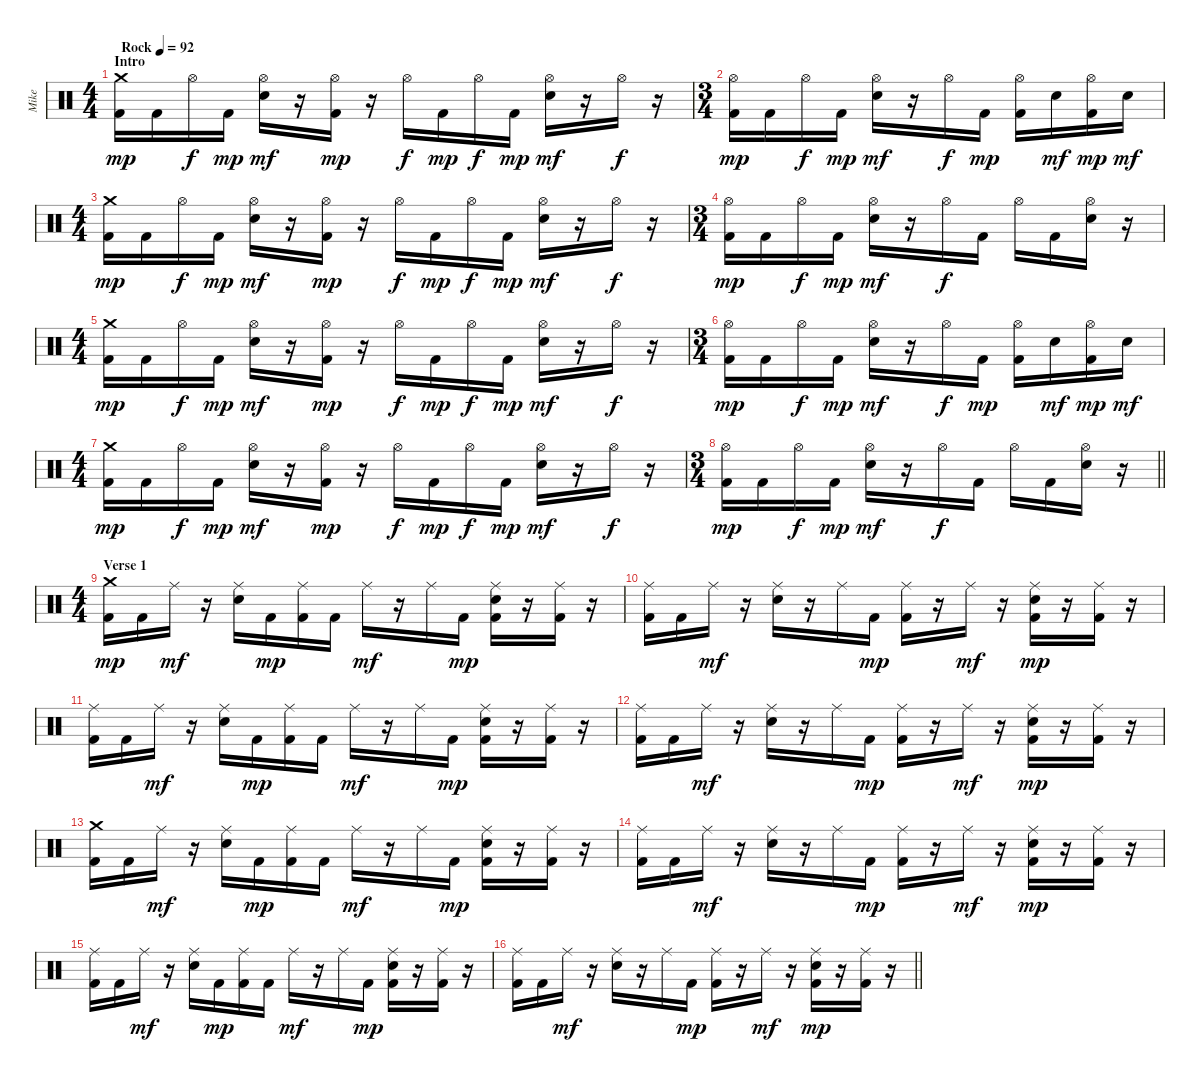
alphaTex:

\track ("Mike" "Mike") {instrument percussion}
\staff {score}
\articulation defaults
\ts (4 4)
\section ("" "Intro")
\tempo (92 "Rock")
\clef neutral
\ks c
("Crash medium (hit)" "Kick (hit) 2").16{dy mp} "Kick (hit) 2".16 "Hi-Hat (open)".16{dy f} "Kick (hit) 2".16{dy mp} ("Hi-Hat (open)" "Snare (hit) 2").16{dy mf} r.16 ("Hi-Hat (open)" "Kick (hit) 2").16{dy mp} r.16 "Hi-Hat (open)".16{dy f} "Kick (hit) 2".16{dy mp} "Hi-Hat (open)".16{dy f} "Kick (hit) 2".16{dy mp} ("Hi-Hat (open)" "Snare (hit) 2").16{dy mf} r.16 "Hi-Hat (open)".16{dy f} r.16 |
\ts (3 4)
("Hi-Hat (open)" "Kick (hit) 2").16{dy mp} "Kick (hit) 2".16 "Hi-Hat (open)".16{dy f} "Kick (hit) 2".16{dy mp} ("Hi-Hat (open)" "Snare (hit) 2").16{dy mf} r.16 "Hi-Hat (open)".16{dy f} "Kick (hit) 2".16{dy mp} ("Hi-Hat (open)" "Kick (hit) 2").16 "Snare (hit) 2".16{dy mf} ("Hi-Hat (open)" "Kick (hit) 2").16{dy mp} "Snare (hit) 2".16{dy mf} |
\ts (4 4)
("Crash medium (hit)" "Kick (hit) 2").16{dy mp} "Kick (hit) 2".16 "Hi-Hat (open)".16{dy f} "Kick (hit) 2".16{dy mp} ("Hi-Hat (open)" "Snare (hit) 2").16{dy mf} r.16 ("Hi-Hat (open)" "Kick (hit) 2").16{dy mp} r.16 "Hi-Hat (open)".16{dy f} "Kick (hit) 2".16{dy mp} "Hi-Hat (open)".16{dy f} "Kick (hit) 2".16{dy mp} ("Hi-Hat (open)" "Snare (hit) 2").16{dy mf} r.16 "Hi-Hat (open)".16{dy f} r.16 |
\ts (3 4)
("Hi-Hat (open)" "Kick (hit) 2").16{dy mp} "Kick (hit) 2".16 "Hi-Hat (open)".16{dy f} "Kick (hit) 2".16{dy mp} ("Hi-Hat (open)" "Snare (hit) 2").16{dy mf} r.16 "Hi-Hat (open)".16{dy f} "Kick (hit) 2".16 "Hi-Hat (open)".16 "Kick (hit) 2".16 ("Hi-Hat (open)" "Snare (hit) 2").16 r.16 |
\ts (4 4)
("Crash medium (hit)" "Kick (hit) 2").16{dy mp} "Kick (hit) 2".16 "Hi-Hat (open)".16{dy f} "Kick (hit) 2".16{dy mp} ("Hi-Hat (open)" "Snare (hit) 2").16{dy mf} r.16 ("Hi-Hat (open)" "Kick (hit) 2").16{dy mp} r.16 "Hi-Hat (open)".16{dy f} "Kick (hit) 2".16{dy mp} "Hi-Hat (open)".16{dy f} "Kick (hit) 2".16{dy mp} ("Hi-Hat (open)" "Snare (hit) 2").16{dy mf} r.16 "Hi-Hat (open)".16{dy f} r.16 |
\ts (3 4)
("Hi-Hat (open)" "Kick (hit) 2").16{dy mp} "Kick (hit) 2".16 "Hi-Hat (open)".16{dy f} "Kick (hit) 2".16{dy mp} ("Hi-Hat (open)" "Snare (hit) 2").16{dy mf} r.16 "Hi-Hat (open)".16{dy f} "Kick (hit) 2".16{dy mp} ("Hi-Hat (open)" "Kick (hit) 2").16 "Snare (hit) 2".16{dy mf} ("Hi-Hat (open)" "Kick (hit) 2").16{dy mp} "Snare (hit) 2".16{dy mf} |
\ts (4 4)
("Crash medium (hit)" "Kick (hit) 2").16{dy mp} "Kick (hit) 2".16 "Hi-Hat (open)".16{dy f} "Kick (hit) 2".16{dy mp} ("Hi-Hat (open)" "Snare (hit) 2").16{dy mf} r.16 ("Hi-Hat (open)" "Kick (hit) 2").16{dy mp} r.16 "Hi-Hat (open)".16{dy f} "Kick (hit) 2".16{dy mp} "Hi-Hat (open)".16{dy f} "Kick (hit) 2".16{dy mp} ("Hi-Hat (open)" "Snare (hit) 2").16{dy mf} r.16 "Hi-Hat (open)".16{dy f} r.16 |
\ts (3 4)
\barLineRight lightlight
("Hi-Hat (open)" "Kick (hit) 2").16{dy mp} "Kick (hit) 2".16 "Hi-Hat (open)".16{dy f} "Kick (hit) 2".16{dy mp} ("Hi-Hat (open)" "Snare (hit) 2").16{dy mf} r.16 "Hi-Hat (open)".16{dy f} "Kick (hit) 2".16 "Hi-Hat (open)".16 "Kick (hit) 2".16 ("Hi-Hat (open)" "Snare (hit) 2").16 r.16 |
\ts (4 4)
\section ("" "Verse 1")
("Crash medium (hit)" "Kick (hit) 2").16{dy mp} "Kick (hit) 2".16 "Ride (middle)".16{dy mf} r.16 ("Ride (middle)" "Snare (hit) 2").16 "Kick (hit) 2".16{dy mp} ("Ride (middle)" "Kick (hit) 2").16 "Kick (hit) 2".16 "Ride (middle)".16{dy mf} r.16 "Ride (middle)".16 "Kick (hit) 2".16{dy mp} ("Ride (middle)" "Snare (hit) 2" "Kick (hit) 2").16 r.16 ("Ride (middle)" "Kick (hit) 2").16 r.16 |
("Ride (middle)" "Kick (hit) 2").16 "Kick (hit) 2".16 "Ride (middle)".16{dy mf} r.16 ("Ride (middle)" "Snare (hit) 2").16 r.16 "Ride (middle)".16 "Kick (hit) 2".16{dy mp} ("Ride (middle)" "Kick (hit) 2").16 r.16 "Ride (middle)".16{dy mf} r.16 ("Ride (middle)" "Snare (hit) 2" "Kick (hit) 2").16{dy mp} r.16 ("Ride (middle)" "Kick (hit) 2").16 r.16 |
("Ride (middle)" "Kick (hit) 2").16 "Kick (hit) 2".16 "Ride (middle)".16{dy mf} r.16 ("Ride (middle)" "Snare (hit) 2").16 "Kick (hit) 2".16{dy mp} ("Ride (middle)" "Kick (hit) 2").16 "Kick (hit) 2".16 "Ride (middle)".16{dy mf} r.16 "Ride (middle)".16 "Kick (hit) 2".16{dy mp} ("Ride (middle)" "Snare (hit) 2" "Kick (hit) 2").16 r.16 ("Ride (middle)" "Kick (hit) 2").16 r.16 |
("Ride (middle)" "Kick (hit) 2").16 "Kick (hit) 2".16 "Ride (middle)".16{dy mf} r.16 ("Ride (middle)" "Snare (hit) 2").16 r.16 "Ride (middle)".16 "Kick (hit) 2".16{dy mp} ("Ride (middle)" "Kick (hit) 2").16 r.16 "Ride (middle)".16{dy mf} r.16 ("Ride (middle)" "Snare (hit) 2" "Kick (hit) 2").16{dy mp} r.16 ("Ride (middle)" "Kick (hit) 2").16 r.16 |
("Crash medium (hit)" "Kick (hit) 2").16 "Kick (hit) 2".16 "Ride (middle)".16{dy mf} r.16 ("Ride (middle)" "Snare (hit) 2").16 "Kick (hit) 2".16{dy mp} ("Ride (middle)" "Kick (hit) 2").16 "Kick (hit) 2".16 "Ride (middle)".16{dy mf} r.16 "Ride (middle)".16 "Kick (hit) 2".16{dy mp} ("Ride (middle)" "Snare (hit) 2" "Kick (hit) 2").16 r.16 ("Ride (middle)" "Kick (hit) 2").16 r.16 |
("Ride (middle)" "Kick (hit) 2").16 "Kick (hit) 2".16 "Ride (middle)".16{dy mf} r.16 ("Ride (middle)" "Snare (hit) 2").16 r.16 "Ride (middle)".16 "Kick (hit) 2".16{dy mp} ("Ride (middle)" "Kick (hit) 2").16 r.16 "Ride (middle)".16{dy mf} r.16 ("Ride (middle)" "Snare (hit) 2" "Kick (hit) 2").16{dy mp} r.16 ("Ride (middle)" "Kick (hit) 2").16 r.16 |
("Ride (middle)" "Kick (hit) 2").16 "Kick (hit) 2".16 "Ride (middle)".16{dy mf} r.16 ("Ride (middle)" "Snare (hit) 2").16 "Kick (hit) 2".16{dy mp} ("Ride (middle)" "Kick (hit) 2").16 "Kick (hit) 2".16 "Ride (middle)".16{dy mf} r.16 "Ride (middle)".16 "Kick (hit) 2".16{dy mp} ("Ride (middle)" "Snare (hit) 2" "Kick (hit) 2").16 r.16 ("Ride (middle)" "Kick (hit) 2").16 r.16 |
\barLineRight lightlight
("Ride (middle)" "Kick (hit) 2").16 "Kick (hit) 2".16 "Ride (middle)".16{dy mf} r.16 ("Ride (middle)" "Snare (hit) 2").16 r.16 "Ride (middle)".16 "Kick (hit) 2".16{dy mp} ("Ride (middle)" "Kick (hit) 2").16 r.16 "Ride (middle)".16{dy mf} r.16 ("Ride (middle)" "Snare (hit) 2" "Kick (hit) 2").16{dy mp} r.16 ("Ride (middle)" "Kick (hit) 2").16 r.16
